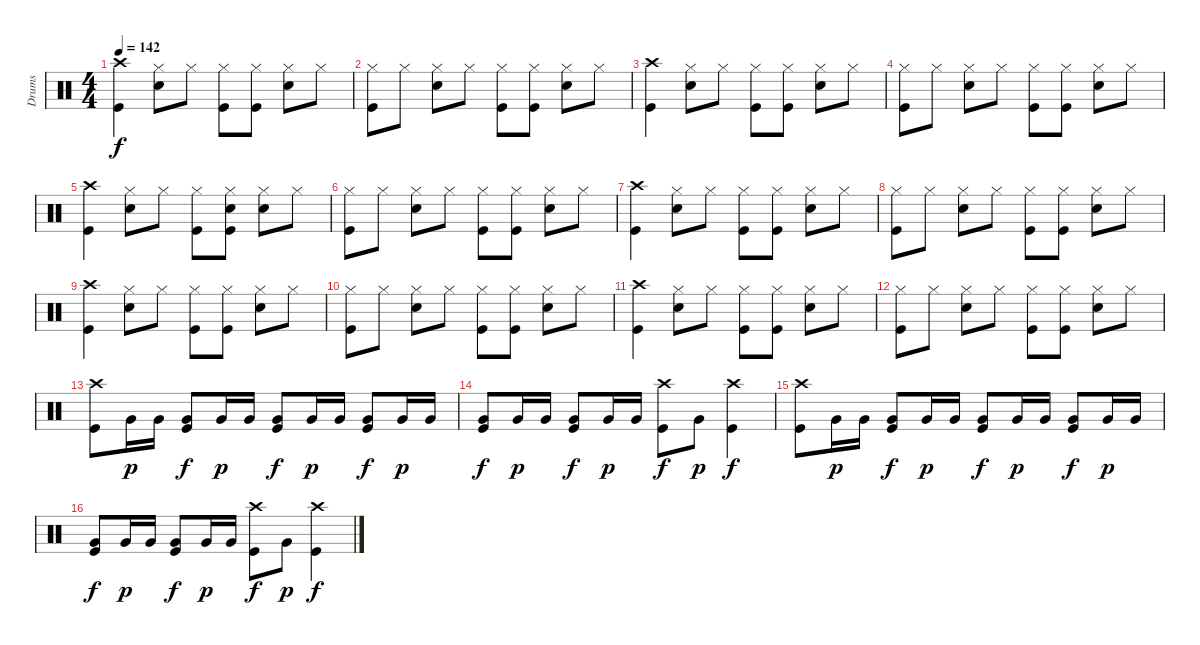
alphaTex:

\track ("Drums" "Drums") {instrument percussion}
\staff {score}
\articulation defaults
\ts (4 4)
\tempo 142
\clef neutral
\ks c
("Kick (hit)" "Crash high (hit)").4{dy f} ("Hi-Hat (closed)" "Snare (hit) 2").8 "Hi-Hat (closed)".8 ("Kick (hit)" "Hi-Hat (closed)").8 ("Hi-Hat (closed)" "Kick (hit)").8 ("Hi-Hat (closed)" "Snare (hit) 2").8 "Hi-Hat (closed)".8 |
("Hi-Hat (closed)" "Kick (hit)").8 "Hi-Hat (closed)".8 ("Hi-Hat (closed)" "Snare (hit) 2").8 "Hi-Hat (closed)".8 ("Hi-Hat (closed)" "Kick (hit)").8 ("Hi-Hat (closed)" "Kick (hit)").8 ("Hi-Hat (closed)" "Snare (hit) 2").8 "Hi-Hat (closed)".8 |
("Kick (hit)" "Crash high (hit)").4 ("Hi-Hat (closed)" "Snare (hit) 2").8 "Hi-Hat (closed)".8 ("Kick (hit)" "Hi-Hat (closed)").8 ("Hi-Hat (closed)" "Kick (hit)").8 ("Hi-Hat (closed)" "Snare (hit) 2").8 "Hi-Hat (closed)".8 |
("Hi-Hat (closed)" "Kick (hit)").8 "Hi-Hat (closed)".8 ("Hi-Hat (closed)" "Snare (hit) 2").8 "Hi-Hat (closed)".8 ("Hi-Hat (closed)" "Kick (hit)").8 ("Hi-Hat (closed)" "Kick (hit)").8 ("Hi-Hat (closed)" "Snare (hit) 2").8 "Hi-Hat (closed)".8 |
("Kick (hit)" "Crash high (hit)").4 ("Hi-Hat (closed)" "Snare (hit) 2").8 "Hi-Hat (closed)".8 ("Kick (hit)" "Hi-Hat (closed)").8 ("Snare (hit) 2" "Hi-Hat (closed)" "Kick (hit)").8 ("Hi-Hat (closed)" "Snare (hit) 2").8 "Hi-Hat (closed)".8 |
("Hi-Hat (closed)" "Kick (hit)").8 "Hi-Hat (closed)".8 ("Hi-Hat (closed)" "Snare (hit) 2").8 "Hi-Hat (closed)".8 ("Hi-Hat (closed)" "Kick (hit)").8 ("Hi-Hat (closed)" "Kick (hit)").8 ("Hi-Hat (closed)" "Snare (hit) 2").8 "Hi-Hat (closed)".8 |
("Kick (hit)" "Crash high (hit)").4 ("Hi-Hat (closed)" "Snare (hit) 2").8 "Hi-Hat (closed)".8 ("Kick (hit)" "Hi-Hat (closed)").8 ("Hi-Hat (closed)" "Kick (hit)").8 ("Hi-Hat (closed)" "Snare (hit) 2").8 "Hi-Hat (closed)".8 |
("Hi-Hat (closed)" "Kick (hit)").8 "Hi-Hat (closed)".8 ("Hi-Hat (closed)" "Snare (hit) 2").8 "Hi-Hat (closed)".8 ("Hi-Hat (closed)" "Kick (hit)").8 ("Hi-Hat (closed)" "Kick (hit)").8 ("Hi-Hat (closed)" "Snare (hit) 2").8 "Hi-Hat (closed)".8 |
("Kick (hit)" "Crash high (hit)").4 ("Hi-Hat (closed)" "Snare (hit) 2").8 "Hi-Hat (closed)".8 ("Kick (hit)" "Hi-Hat (closed)").8 ("Hi-Hat (closed)" "Kick (hit)").8 ("Hi-Hat (closed)" "Snare (hit) 2").8 "Hi-Hat (closed)".8 |
("Hi-Hat (closed)" "Kick (hit)").8 "Hi-Hat (closed)".8 ("Hi-Hat (closed)" "Snare (hit) 2").8 "Hi-Hat (closed)".8 ("Hi-Hat (closed)" "Kick (hit)").8 ("Hi-Hat (closed)" "Kick (hit)").8 ("Hi-Hat (closed)" "Snare (hit) 2").8 "Hi-Hat (closed)".8 |
("Kick (hit)" "Crash high (hit)").4 ("Hi-Hat (closed)" "Snare (hit) 2").8 "Hi-Hat (closed)".8 ("Kick (hit)" "Hi-Hat (closed)").8 ("Hi-Hat (closed)" "Kick (hit)").8 ("Hi-Hat (closed)" "Snare (hit) 2").8 "Hi-Hat (closed)".8 |
("Hi-Hat (closed)" "Kick (hit)").8 "Hi-Hat (closed)".8 ("Hi-Hat (closed)" "Snare (hit) 2").8 "Hi-Hat (closed)".8 ("Hi-Hat (closed)" "Kick (hit)").8 ("Hi-Hat (closed)" "Kick (hit)").8 ("Hi-Hat (closed)" "Snare (hit) 2").8 "Hi-Hat (closed)".8 |
("Kick (hit)" "Crash high (hit)").8 "Very Low Tom (hit)".16{dy p} "Very Low Tom (hit)".16 ("Kick (hit)" "Very Low Tom (hit)").8{dy f} "Very Low Tom (hit)".16{dy p} "Very Low Tom (hit)".16 ("Kick (hit)" "Very Low Tom (hit)").8{dy f} "Very Low Tom (hit)".16{dy p} "Very Low Tom (hit)".16 ("Very Low Tom (hit)" "Kick (hit)").8{dy f} "Very Low Tom (hit)".16{dy p} "Very Low Tom (hit)".16 |
("Very Low Tom (hit)" "Kick (hit)").8{dy f} "Very Low Tom (hit)".16{dy p} "Very Low Tom (hit)".16 ("Very Low Tom (hit)" "Kick (hit)").8{dy f} "Very Low Tom (hit)".16{dy p} "Very Low Tom (hit)".16 ("Kick (hit)" "Crash high (hit)").8{dy f} "Very Low Tom (hit)".8{dy p} ("Crash high (hit)" "Kick (hit)").4{dy f} |
("Kick (hit)" "Crash high (hit)").8 "Very Low Tom (hit)".16{dy p} "Very Low Tom (hit)".16 ("Kick (hit)" "Very Low Tom (hit)").8{dy f} "Very Low Tom (hit)".16{dy p} "Very Low Tom (hit)".16 ("Kick (hit)" "Very Low Tom (hit)").8{dy f} "Very Low Tom (hit)".16{dy p} "Very Low Tom (hit)".16 ("Very Low Tom (hit)" "Kick (hit)").8{dy f} "Very Low Tom (hit)".16{dy p} "Very Low Tom (hit)".16 |
("Very Low Tom (hit)" "Kick (hit)").8{dy f} "Very Low Tom (hit)".16{dy p} "Very Low Tom (hit)".16 ("Very Low Tom (hit)" "Kick (hit)").8{dy f} "Very Low Tom (hit)".16{dy p} "Very Low Tom (hit)".16 ("Kick (hit)" "Crash high (hit)").8{dy f} "Very Low Tom (hit)".8{dy p} ("Crash high (hit)" "Kick (hit)").4{dy f}
